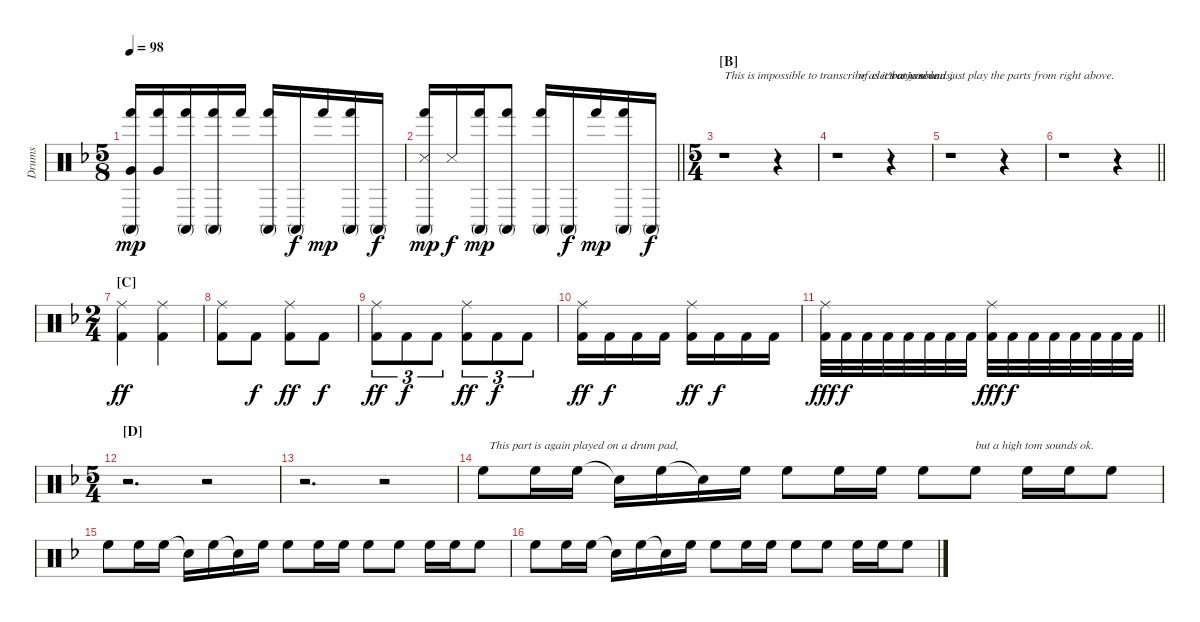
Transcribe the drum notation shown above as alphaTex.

\track ("Drums" "Drums") {instrument percussion}
\staff {score}
\articulation defaults
\ts (5 8)
\tempo 98
\clef neutral
\ks dminor
("Hand (hit)" "Conga high (mute)" "Very Low Tom (hit)").16{dy mp beam Up} ("Hand (hit)" "Very Low Tom (hit)").16{beam merge} ("Hand (hit)" "Conga high (mute)").16 ("Hand (hit)" "Conga high (mute)").16{beam merge} "Hand (hit)".16{beam split} ("Hand (hit)" "Conga high (mute)").16{beam Up beam merge} "Conga high (mute)".16{dy f beam Up} "Hand (hit)".16{dy mp beam merge} ("Hand (hit)" "Conga high (mute)").16{beam Up} "Conga high (mute)".16{dy f beam Up} |
\barLineRight lightlight
("Hand (hit)" "Conga high (mute)" "Snare (side stick) 3").16{dy mp beam Up} "Snare (side stick) 3".16{dy f beam merge} ("Hand (hit)" "Conga high (mute)").16{dy mp} ("Hand (hit)" "Conga high (mute)").8{beam split} ("Hand (hit)" "Conga high (mute)").16{beam Up beam merge} "Conga high (mute)".16{dy f beam Up} "Hand (hit)".16{dy mp beam merge} ("Hand (hit)" "Conga high (mute)").16{beam Up} "Conga high (mute)".16{dy f beam Up} |
\ts (5 4)
\section ("" "[B]")
r.1{txt "This is impossible to transcribe as it's a jumble"} r.4 |
r.1{txt "       of electronic sounds,"} r.4{txt "but you can just play the parts from right above."} |
r.1 r.4 |
\barLineRight lightlight
r.1 r.4 |
\ts (2 4)
\section ("" "[C]")
("Ride (middle)" "Kick (hit) 2").4{dy ff} ("Ride (middle)" "Kick (hit) 2").4 |
("Ride (middle)" "Kick (hit) 2").8 "Kick (hit) 2".8{dy f} ("Ride (middle)" "Kick (hit) 2").8{dy ff} "Kick (hit) 2".8{dy f} |
("Ride (middle)" "Kick (hit) 2").8{tu (3 2) dy ff} "Kick (hit) 2".8{tu (3 2) dy f} "Kick (hit) 2".8{tu (3 2)} ("Ride (middle)" "Kick (hit) 2").8{tu (3 2) dy ff} "Kick (hit) 2".8{tu (3 2) dy f} "Kick (hit) 2".8{tu (3 2)} |
("Ride (middle)" "Kick (hit) 2").16{dy ff} "Kick (hit) 2".16{dy f} "Kick (hit) 2".16 "Kick (hit) 2".16 ("Ride (middle)" "Kick (hit) 2").16{dy ff} "Kick (hit) 2".16{dy f} "Kick (hit) 2".16 "Kick (hit) 2".16 |
\barLineRight lightlight
("Ride (middle)" "Kick (hit) 2").32{dy fff} "Kick (hit) 2".32{dy f} "Kick (hit) 2".32 "Kick (hit) 2".32 "Kick (hit) 2".32 "Kick (hit) 2".32 "Kick (hit) 2".32 "Kick (hit) 2".32 ("Ride (middle)" "Kick (hit) 2").32{dy fff} "Kick (hit) 2".32{dy f} "Kick (hit) 2".32 "Kick (hit) 2".32 "Kick (hit) 2".32 "Kick (hit) 2".32 "Kick (hit) 2".32 "Kick (hit) 2".32 |
\ts (5 4)
\section ("" "[D]")
r.2{d} r.2 |
r.2{d} r.2 |
"High Floor Tom (hit)".8{txt "  This part is again played on a drum pad,"} "High Floor Tom (hit)".16 "High Floor Tom (hit)".16 "Snare (hit)"{t}.16 "High Floor Tom (hit)".16 "Snare (hit)"{t}.16 "High Floor Tom (hit)".16 "High Floor Tom (hit)".8 "High Floor Tom (hit)".16 "High Floor Tom (hit)".16 "High Floor Tom (hit)".8 "High Floor Tom (hit)".8{txt "but a high tom sounds ok."} "High Floor Tom (hit)".16 "High Floor Tom (hit)".16 "High Floor Tom (hit)".8 |
"High Floor Tom (hit)".8 "High Floor Tom (hit)".16 "High Floor Tom (hit)".16 "Snare (hit)"{t}.16 "High Floor Tom (hit)".16 "Snare (hit)"{t}.16 "High Floor Tom (hit)".16 "High Floor Tom (hit)".8 "High Floor Tom (hit)".16 "High Floor Tom (hit)".16 "High Floor Tom (hit)".8 "High Floor Tom (hit)".8 "High Floor Tom (hit)".16 "High Floor Tom (hit)".16 "High Floor Tom (hit)".8 |
"High Floor Tom (hit)".8 "High Floor Tom (hit)".16 "High Floor Tom (hit)".16 "Snare (hit)"{t}.16 "High Floor Tom (hit)".16 "Snare (hit)"{t}.16 "High Floor Tom (hit)".16 "High Floor Tom (hit)".8 "High Floor Tom (hit)".16 "High Floor Tom (hit)".16 "High Floor Tom (hit)".8 "High Floor Tom (hit)".8 "High Floor Tom (hit)".16 "High Floor Tom (hit)".16 "High Floor Tom (hit)".8
